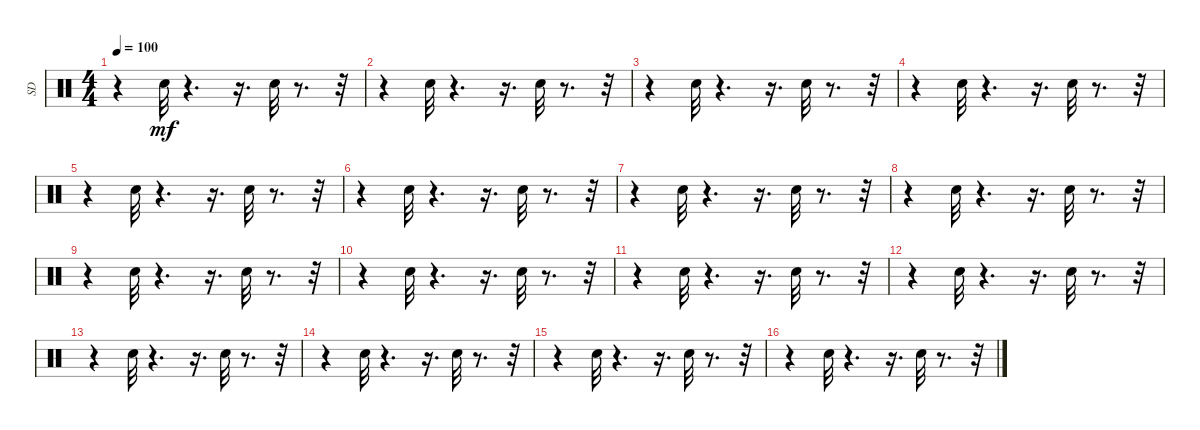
\track ("SD" "SD") {instrument percussion}
\staff {score}
\articulation defaults
\ts (4 4)
\tempo 100
\clef neutral
\ks c
r.4{dy mf} "Metronome (bell)".32 r.4{d} r.16{d} "Metronome (bell)".32 r.8{d} r.32 |
r.4 "Metronome (bell)".32 r.4{d} r.16{d} "Metronome (bell)".32 r.8{d} r.32 |
r.4 "Metronome (bell)".32 r.4{d} r.16{d} "Metronome (bell)".32 r.8{d} r.32 |
r.4 "Metronome (bell)".32 r.4{d} r.16{d} "Metronome (bell)".32 r.8{d} r.32 |
r.4 "Metronome (bell)".32 r.4{d} r.16{d} "Metronome (bell)".32 r.8{d} r.32 |
r.4 "Metronome (bell)".32 r.4{d} r.16{d} "Metronome (bell)".32 r.8{d} r.32 |
r.4 "Metronome (bell)".32 r.4{d} r.16{d} "Metronome (bell)".32 r.8{d} r.32 |
r.4 "Metronome (bell)".32 r.4{d} r.16{d} "Metronome (bell)".32 r.8{d} r.32 |
r.4 "Metronome (bell)".32 r.4{d} r.16{d} "Metronome (bell)".32 r.8{d} r.32 |
r.4 "Metronome (bell)".32 r.4{d} r.16{d} "Metronome (bell)".32 r.8{d} r.32 |
r.4 "Metronome (bell)".32 r.4{d} r.16{d} "Metronome (bell)".32 r.8{d} r.32 |
r.4 "Metronome (bell)".32 r.4{d} r.16{d} "Metronome (bell)".32 r.8{d} r.32 |
r.4 "Metronome (bell)".32 r.4{d} r.16{d} "Metronome (bell)".32 r.8{d} r.32 |
r.4 "Metronome (bell)".32 r.4{d} r.16{d} "Metronome (bell)".32 r.8{d} r.32 |
r.4 "Metronome (bell)".32 r.4{d} r.16{d} "Metronome (bell)".32 r.8{d} r.32 |
r.4 "Metronome (bell)".32 r.4{d} r.16{d} "Metronome (bell)".32 r.8{d} r.32
